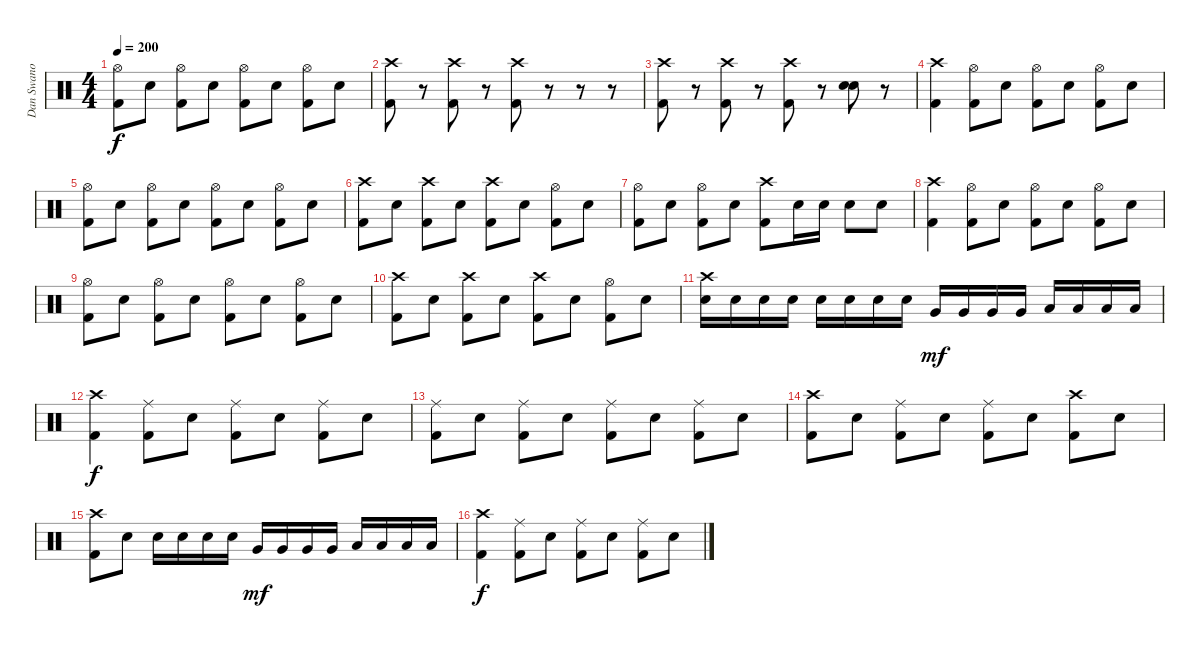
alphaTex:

\track ("Dan Swano" "Dan Swano") {instrument percussion}
\staff {score}
\articulation defaults
\ts (4 4)
\tempo 200
\clef neutral
\ks c
("Hi-Hat (open)" "Kick (hit) 2").8{dy f} "Electric Snare (hit)".8 ("Hi-Hat (open)" "Kick (hit) 2").8 "Electric Snare (hit)".8 ("Hi-Hat (open)" "Kick (hit) 2").8 "Electric Snare (hit)".8 ("Hi-Hat (open)" "Kick (hit) 2").8 "Electric Snare (hit)".8 |
("Crash high (hit)" "Kick (hit) 2").8 r.8 ("Crash high (hit)" "Kick (hit) 2").8 r.8 ("Crash high (hit)" "Kick (hit) 2").8 r.8 r.8 r.8 |
("Crash high (hit)" "Kick (hit) 2").8 r.8 ("Crash high (hit)" "Kick (hit) 2").8 r.8 ("Crash high (hit)" "Kick (hit) 2").8 r.8 ("Electric Snare (hit)" "Electric Snare (hit)").8 r.8 |
("Crash high (hit)" "Kick (hit) 2").4 ("Hi-Hat (open)" "Kick (hit) 2").8 "Electric Snare (hit)".8 ("Hi-Hat (open)" "Kick (hit) 2").8 "Electric Snare (hit)".8 ("Hi-Hat (open)" "Kick (hit) 2").8 "Electric Snare (hit)".8 |
("Hi-Hat (open)" "Kick (hit) 2").8 "Electric Snare (hit)".8 ("Hi-Hat (open)" "Kick (hit) 2").8 "Electric Snare (hit)".8 ("Hi-Hat (open)" "Kick (hit) 2").8 "Electric Snare (hit)".8 ("Hi-Hat (open)" "Kick (hit) 2").8 "Electric Snare (hit)".8 |
("Crash high (hit)" "Kick (hit) 2").8 "Electric Snare (hit)".8 ("Crash high (hit)" "Kick (hit) 2").8 "Electric Snare (hit)".8 ("Crash high (hit)" "Kick (hit) 2").8 "Electric Snare (hit)".8 ("Hi-Hat (open)" "Kick (hit) 2").8 "Electric Snare (hit)".8 |
("Hi-Hat (open)" "Kick (hit) 2").8 "Electric Snare (hit)".8 ("Hi-Hat (open)" "Kick (hit) 2").8 "Electric Snare (hit)".8 ("Crash high (hit)" "Kick (hit) 2").8 "Electric Snare (hit)".16 "Electric Snare (hit)".16 "Electric Snare (hit)".8 "Electric Snare (hit)".8 |
("Crash high (hit)" "Kick (hit) 2").4 ("Hi-Hat (open)" "Kick (hit) 2").8 "Electric Snare (hit)".8 ("Hi-Hat (open)" "Kick (hit) 2").8 "Electric Snare (hit)".8 ("Hi-Hat (open)" "Kick (hit) 2").8 "Electric Snare (hit)".8 |
("Hi-Hat (open)" "Kick (hit) 2").8 "Electric Snare (hit)".8 ("Hi-Hat (open)" "Kick (hit) 2").8 "Electric Snare (hit)".8 ("Hi-Hat (open)" "Kick (hit) 2").8 "Electric Snare (hit)".8 ("Hi-Hat (open)" "Kick (hit) 2").8 "Electric Snare (hit)".8 |
("Crash high (hit)" "Kick (hit) 2").8 "Electric Snare (hit)".8 ("Crash high (hit)" "Kick (hit) 2").8 "Electric Snare (hit)".8 ("Crash high (hit)" "Kick (hit) 2").8 "Electric Snare (hit)".8 ("Hi-Hat (open)" "Kick (hit) 2").8 "Electric Snare (hit)".8 |
("Crash high (hit)" "Electric Snare (hit)").16 "Electric Snare (hit)".16 "Electric Snare (hit)".16 "Electric Snare (hit)".16 "Electric Snare (hit)".16 "Electric Snare (hit)".16 "Electric Snare (hit)".16 "Electric Snare (hit)".16 "Very Low Tom (hit)".16{dy mf} "Very Low Tom (hit)".16 "Very Low Tom (hit)".16 "Very Low Tom (hit)".16 "Low Floor Tom (hit)".16 "Low Floor Tom (hit)".16 "Low Floor Tom (hit)".16 "Low Floor Tom (hit)".16 |
("Crash high (hit)" "Kick (hit) 2").4{dy f} ("Ride (middle)" "Kick (hit) 2").8 "Electric Snare (hit)".8 ("Ride (middle)" "Kick (hit) 2").8 "Electric Snare (hit)".8 ("Ride (middle)" "Kick (hit) 2").8 "Electric Snare (hit)".8 |
("Ride (middle)" "Kick (hit) 2").8 "Electric Snare (hit)".8 ("Ride (middle)" "Kick (hit) 2").8 "Electric Snare (hit)".8 ("Ride (middle)" "Kick (hit) 2").8 "Electric Snare (hit)".8 ("Ride (middle)" "Kick (hit) 2").8 "Electric Snare (hit)".8 |
("Crash high (hit)" "Kick (hit) 2").8 "Electric Snare (hit)".8 ("Ride (middle)" "Kick (hit) 2").8 "Electric Snare (hit)".8 ("Ride (middle)" "Kick (hit) 2").8 "Electric Snare (hit)".8 ("Crash high (hit)" "Kick (hit) 2").8 "Electric Snare (hit)".8 |
("Crash high (hit)" "Kick (hit) 2").8 "Electric Snare (hit)".8 "Electric Snare (hit)".16 "Electric Snare (hit)".16 "Electric Snare (hit)".16 "Electric Snare (hit)".16 "Very Low Tom (hit)".16{dy mf} "Very Low Tom (hit)".16 "Very Low Tom (hit)".16 "Very Low Tom (hit)".16 "Low Floor Tom (hit)".16 "Low Floor Tom (hit)".16 "Low Floor Tom (hit)".16 "Low Floor Tom (hit)".16 |
("Crash high (hit)" "Kick (hit) 2").4{dy f} ("Ride (middle)" "Kick (hit) 2").8 "Electric Snare (hit)".8 ("Ride (middle)" "Kick (hit) 2").8 "Electric Snare (hit)".8 ("Ride (middle)" "Kick (hit) 2").8 "Electric Snare (hit)".8
